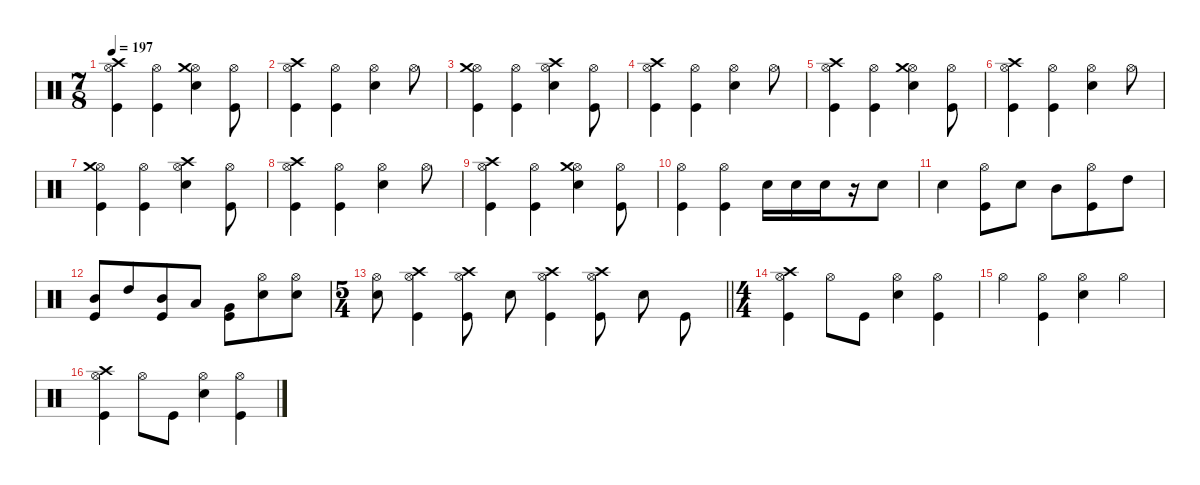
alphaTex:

\defaultSystemsLayout 4
\hideDynamics
\bracketExtendMode nobrackets
\singleTrackTrackNamePolicy hidden
\multiTrackTrackNamePolicy hidden
\firstSystemTrackNameMode fullname
\firstSystemTrackNameOrientation horizontal
\otherSystemsTrackNameOrientation horizontal
\track ("Drums" "drm.") {defaultSystemsLayout 4 instrument percussion}
\staff {score}
\articulation defaults
\ts (7 8)
\tempo 197
\clef neutral
\ks c
("Hi-Hat (open)" "Crash high (hit)" "Kick (hit)").4{dy f beam Down} ("Hi-Hat (open)" "Kick (hit)").4{beam Down} ("Hi-Hat (open)" "Crash medium (hit)" "Snare (hit) 2").4{beam Down} ("Hi-Hat (open)" "Kick (hit)").8{beam Down} |
("Hi-Hat (open)" "Crash high (hit)" "Kick (hit)").4{beam Down} ("Hi-Hat (open)" "Kick (hit)").4{beam Down} ("Hi-Hat (open)" "Snare (hit) 2").4{beam Down} "Hi-Hat (open)".8{beam Down} |
("Hi-Hat (open)" "Crash medium (hit)" "Kick (hit)").4{beam Down} ("Hi-Hat (open)" "Kick (hit)").4{beam Down} ("Hi-Hat (open)" "Crash high (hit)" "Snare (hit) 2").4{beam Down} ("Hi-Hat (open)" "Kick (hit)").8{beam Down} |
("Hi-Hat (open)" "Crash high (hit)" "Kick (hit)").4{beam Down} ("Hi-Hat (open)" "Kick (hit)").4{beam Down} ("Hi-Hat (open)" "Snare (hit) 2").4{beam Down} "Hi-Hat (open)".8{beam Down} |
("Hi-Hat (open)" "Crash high (hit)" "Kick (hit)").4{beam Down} ("Hi-Hat (open)" "Kick (hit)").4{beam Down} ("Hi-Hat (open)" "Crash medium (hit)" "Snare (hit) 2").4{beam Down} ("Hi-Hat (open)" "Kick (hit)").8{beam Down} |
("Hi-Hat (open)" "Crash high (hit)" "Kick (hit)").4{beam Down} ("Hi-Hat (open)" "Kick (hit)").4{beam Down} ("Hi-Hat (open)" "Snare (hit) 2").4{beam Down} "Hi-Hat (open)".8{beam Down} |
("Hi-Hat (open)" "Crash medium (hit)" "Kick (hit)").4{beam Down} ("Hi-Hat (open)" "Kick (hit)").4{beam Down} ("Hi-Hat (open)" "Crash high (hit)" "Snare (hit) 2").4{beam Down} ("Hi-Hat (open)" "Kick (hit)").8{beam Down} |
("Hi-Hat (open)" "Crash high (hit)" "Kick (hit)").4{beam Down} ("Hi-Hat (open)" "Kick (hit)").4{beam Down} ("Hi-Hat (open)" "Snare (hit) 2").4{beam Down} "Hi-Hat (open)".8{beam Down} |
("Hi-Hat (open)" "Crash high (hit)" "Kick (hit)").4{beam Down} ("Hi-Hat (open)" "Kick (hit)").4{beam Down} ("Hi-Hat (open)" "Crash medium (hit)" "Snare (hit) 2").4{beam Down} ("Hi-Hat (open)" "Kick (hit)").8{beam Down} |
("Hi-Hat (open)" "Kick (hit)").4{beam Down} ("Hi-Hat (open)" "Kick (hit)").4{beam Down} "Snare (hit) 2".16{dy mp beam Down} "Snare (hit) 2".16{beam Down} "Snare (hit) 2".16{dy mf beam Down} r.16{beam Down} "Snare (hit) 2".8{dy f beam Down} |
"Snare (hit) 2".4{beam Down} ("Hi-Hat (open)" "Kick (hit)").8{beam Down} "Snare (hit) 2".8{beam Down} "Mid Tom (hit)".8{beam Down} ("Hi-Hat (open)" "Kick (hit)").8{beam Down} "High Tom (hit)".8{beam Down} |
("Mid Tom (hit)" "Kick (hit)").8{beam Up} "High Tom (hit)".8{beam Up} ("Mid Tom (hit)" "Kick (hit)").8{beam Up} "Low Tom (hit)".8{beam Up} ("Very Low Tom (hit)" "Kick (hit)").8{beam Down} ("Hi-Hat (open)" "Snare (hit) 2").8{beam Down} ("Hi-Hat (open)" "Snare (hit) 2").8{beam Down} |
\ts (5 4)
\beaming (8 2 2 3)
\barLineRight lightlight
("Hi-Hat (open)" "Snare (hit) 2").8{beam Down} ("Crash high (hit)" "Hi-Hat (open)" "Kick (hit)").4{beam Down} ("Crash high (hit)" "Hi-Hat (open)" "Kick (hit)").8{beam Down} "Snare (hit) 2".8{beam Down} ("Crash high (hit)" "Hi-Hat (open)" "Kick (hit)").4{beam Down} ("Crash high (hit)" "Hi-Hat (open)" "Kick (hit)").8{beam Down} "Snare (hit) 2".8{beam Down} "Kick (hit)".8{beam Down} |
\ts (4 4)
\beaming (8 2 2 2 2)
("Crash high (hit)" "Hi-Hat (open)" "Kick (hit)").4{beam Down} "Hi-Hat (open)".8{beam Down} "Kick (hit)".8{beam Down} ("Hi-Hat (open)" "Snare (hit) 2").4{beam Down} ("Hi-Hat (open)" "Kick (hit)").4{beam Down} |
"Hi-Hat (open)".4{beam Down} ("Hi-Hat (open)" "Kick (hit)").4{beam Down} ("Hi-Hat (open)" "Snare (hit) 2").4{beam Down} "Hi-Hat (open)".4{beam Down} |
("Crash high (hit)" "Hi-Hat (open)" "Kick (hit)").4{beam Down} "Hi-Hat (open)".8{beam Down} "Kick (hit)".8{beam Down} ("Hi-Hat (open)" "Snare (hit) 2").4{beam Down} ("Hi-Hat (open)" "Kick (hit)").4{beam Down}
